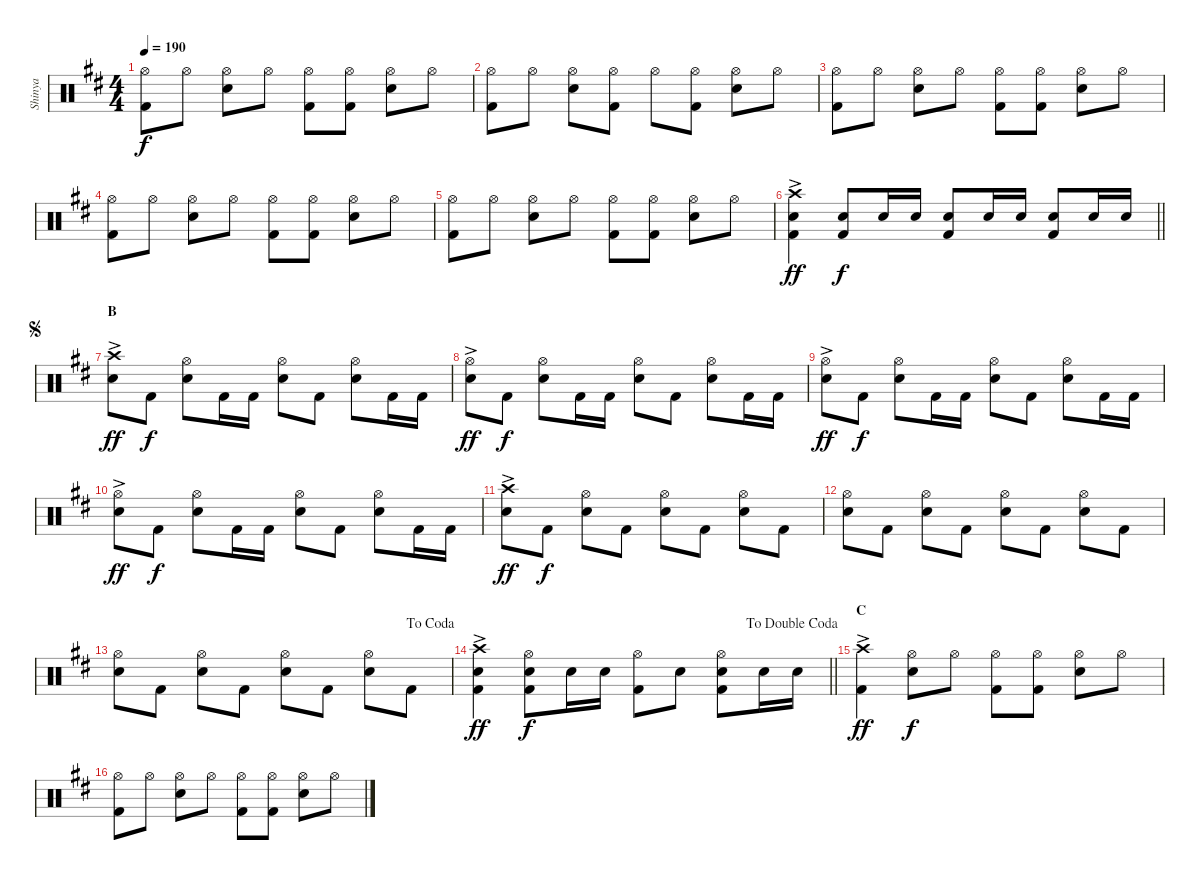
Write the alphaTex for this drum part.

\track ("Shinya" "Shinya") {instrument percussion}
\staff {score}
\articulation defaults
\ts (4 4)
\tempo 190
\clef neutral
\ks d
("Hi-Hat (open)" "Kick (hit) 2").8{dy f} "Hi-Hat (open)".8 ("Hi-Hat (open)" "Snare (hit) 2").8 "Hi-Hat (open)".8 ("Hi-Hat (open)" "Kick (hit) 2").8 ("Hi-Hat (open)" "Kick (hit) 2").8 ("Hi-Hat (open)" "Snare (hit) 2").8 "Hi-Hat (open)".8 |
("Hi-Hat (open)" "Kick (hit) 2").8 "Hi-Hat (open)".8 ("Hi-Hat (open)" "Snare (hit) 2").8 ("Hi-Hat (open)" "Kick (hit) 2").8 "Hi-Hat (open)".8 ("Hi-Hat (open)" "Kick (hit) 2").8 ("Hi-Hat (open)" "Snare (hit) 2").8 "Hi-Hat (open)".8 |
("Hi-Hat (open)" "Kick (hit) 2").8 "Hi-Hat (open)".8 ("Hi-Hat (open)" "Snare (hit) 2").8 "Hi-Hat (open)".8 ("Hi-Hat (open)" "Kick (hit) 2").8 ("Hi-Hat (open)" "Kick (hit) 2").8 ("Hi-Hat (open)" "Snare (hit) 2").8 "Hi-Hat (open)".8 |
("Hi-Hat (open)" "Kick (hit) 2").8 "Hi-Hat (open)".8 ("Hi-Hat (open)" "Snare (hit) 2").8 "Hi-Hat (open)".8 ("Hi-Hat (open)" "Kick (hit) 2").8 ("Hi-Hat (open)" "Kick (hit) 2").8 ("Hi-Hat (open)" "Snare (hit) 2").8 "Hi-Hat (open)".8 |
("Hi-Hat (open)" "Kick (hit) 2").8 "Hi-Hat (open)".8 ("Hi-Hat (open)" "Snare (hit) 2").8 "Hi-Hat (open)".8 ("Hi-Hat (open)" "Kick (hit) 2").8 ("Hi-Hat (open)" "Kick (hit) 2").8 ("Hi-Hat (open)" "Snare (hit) 2").8 "Hi-Hat (open)".8 |
\barLineRight lightlight
("Crash high (hit)"{ac} "Snare (hit) 2" "Kick (hit) 2").4{dy ff} ("Snare (hit) 2" "Kick (hit) 2").8{dy f} "Snare (hit) 2".16 "Snare (hit) 2".16 ("Snare (hit) 2" "Kick (hit) 2").8 "Snare (hit) 2".16 "Snare (hit) 2".16 ("Snare (hit) 2" "Kick (hit) 2").8 "Snare (hit) 2".16 "Snare (hit) 2".16 |
\section ("" "B")
\jump segno
("Crash high (hit)"{ac} "Snare (hit) 2").8{dy ff} "Kick (hit) 2".8{dy f} ("Hi-Hat (open)" "Snare (hit) 2").8 "Kick (hit) 2".16 "Kick (hit) 2".16 ("Hi-Hat (open)" "Snare (hit) 2").8 "Kick (hit) 2".8 ("Hi-Hat (open)" "Snare (hit) 2").8 "Kick (hit) 2".16 "Kick (hit) 2".16 |
("Hi-Hat (open)"{ac} "Snare (hit) 2").8{dy ff} "Kick (hit) 2".8{dy f} ("Hi-Hat (open)" "Snare (hit) 2").8 "Kick (hit) 2".16 "Kick (hit) 2".16 ("Hi-Hat (open)" "Snare (hit) 2").8 "Kick (hit) 2".8 ("Hi-Hat (open)" "Snare (hit) 2").8 "Kick (hit) 2".16 "Kick (hit) 2".16 |
("Hi-Hat (open)"{ac} "Snare (hit) 2").8{dy ff} "Kick (hit) 2".8{dy f} ("Hi-Hat (open)" "Snare (hit) 2").8 "Kick (hit) 2".16 "Kick (hit) 2".16 ("Hi-Hat (open)" "Snare (hit) 2").8 "Kick (hit) 2".8 ("Hi-Hat (open)" "Snare (hit) 2").8 "Kick (hit) 2".16 "Kick (hit) 2".16 |
("Hi-Hat (open)"{ac} "Snare (hit) 2").8{dy ff} "Kick (hit) 2".8{dy f} ("Hi-Hat (open)" "Snare (hit) 2").8 "Kick (hit) 2".16 "Kick (hit) 2".16 ("Hi-Hat (open)" "Snare (hit) 2").8 "Kick (hit) 2".8 ("Hi-Hat (open)" "Snare (hit) 2").8 "Kick (hit) 2".16 "Kick (hit) 2".16 |
("Crash high (hit)"{ac} "Snare (hit) 2").8{dy ff} "Kick (hit) 2".8{dy f} ("Hi-Hat (open)" "Snare (hit) 2").8 "Kick (hit) 2".8 ("Hi-Hat (open)" "Snare (hit) 2").8 "Kick (hit) 2".8 ("Hi-Hat (open)" "Snare (hit) 2").8 "Kick (hit) 2".8 |
("Hi-Hat (open)" "Snare (hit) 2").8 "Kick (hit) 2".8 ("Hi-Hat (open)" "Snare (hit) 2").8 "Kick (hit) 2".8 ("Hi-Hat (open)" "Snare (hit) 2").8 "Kick (hit) 2".8 ("Hi-Hat (open)" "Snare (hit) 2").8 "Kick (hit) 2".8 |
\jump dacoda
("Hi-Hat (open)" "Snare (hit) 2").8 "Kick (hit) 2".8 ("Hi-Hat (open)" "Snare (hit) 2").8 "Kick (hit) 2".8 ("Hi-Hat (open)" "Snare (hit) 2").8 "Kick (hit) 2".8 ("Hi-Hat (open)" "Snare (hit) 2").8 "Kick (hit) 2".8 |
\jump dadoublecoda
\barLineRight lightlight
("Crash high (hit)"{ac} "Snare (hit) 2" "Kick (hit) 2").4{dy ff} ("Hi-Hat (open)" "Snare (hit) 2" "Kick (hit) 2").8{dy f} "Snare (hit) 2".16 "Snare (hit) 2".16 ("Hi-Hat (open)" "Kick (hit) 2").8 "Snare (hit) 2".8 ("Hi-Hat (open)" "Snare (hit) 2" "Kick (hit) 2").8 "Snare (hit) 2".16 "Snare (hit) 2".16 |
\section ("" "C")
("Crash high (hit)"{ac} "Kick (hit) 2").4{dy ff} ("Hi-Hat (open)" "Snare (hit) 2").8{dy f} "Hi-Hat (open)".8 ("Hi-Hat (open)" "Kick (hit) 2").8 ("Hi-Hat (open)" "Kick (hit) 2").8 ("Hi-Hat (open)" "Snare (hit) 2").8 "Hi-Hat (open)".8 |
("Hi-Hat (open)" "Kick (hit) 2").8 "Hi-Hat (open)".8 ("Hi-Hat (open)" "Snare (hit) 2").8 "Hi-Hat (open)".8 ("Hi-Hat (open)" "Kick (hit) 2").8 ("Hi-Hat (open)" "Kick (hit) 2").8 ("Hi-Hat (open)" "Snare (hit) 2").8 "Hi-Hat (open)".8
